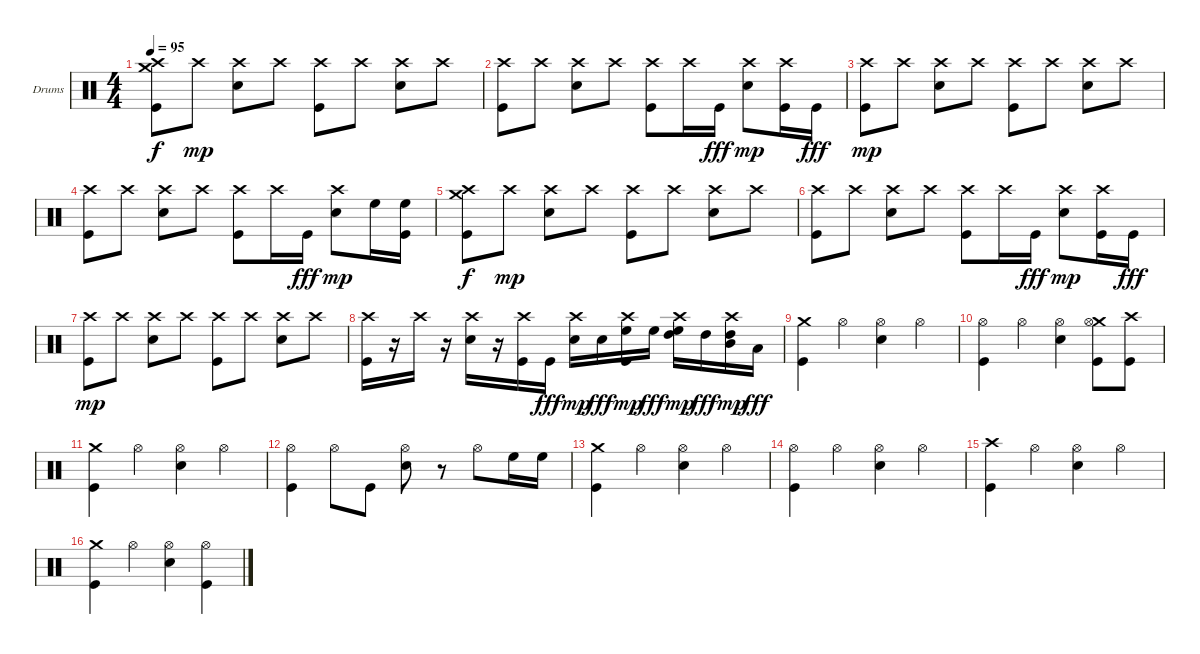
\bracketExtendMode groupsimilarinstruments
\firstSystemTrackNameOrientation horizontal
\otherSystemsTrackNameOrientation horizontal
\track ("Drumkit" "Drums") {solo instrument percussion}
\staff {score}
\articulation defaults
\ts (4 4)
\tempo 95
\clef neutral
\scale
0.5
\ks c
("Crash medium (hit)" "Crash high (hit)" "Kick (hit)").8{dy f} "Crash high (hit)".8{dy mp} ("Crash high (hit)" "Snare (hit) 2").8 "Crash high (hit)".8 ("Crash high (hit)" "Kick (hit)").8 "Crash high (hit)".8 ("Crash high (hit)" "Snare (hit) 2").8 "Crash high (hit)".8 |
\scale
0.5 ("Crash high (hit)" "Kick (hit)").8 "Crash high (hit)".8 ("Crash high (hit)" "Snare (hit) 2").8 "Crash high (hit)".8 ("Crash high (hit)" "Kick (hit)").8 "Crash high (hit)".16 "Kick (hit)".16{dy fff} ("Crash high (hit)" "Snare (hit) 2").8{dy mp} ("Crash high (hit)" "Kick (hit)").16 "Kick (hit)".16{dy fff} |
\scale
0.5 ("Crash high (hit)" "Kick (hit)").8{dy mp} "Crash high (hit)".8 ("Crash high (hit)" "Snare (hit) 2").8 "Crash high (hit)".8 ("Crash high (hit)" "Kick (hit)").8 "Crash high (hit)".8 ("Crash high (hit)" "Snare (hit) 2").8 "Crash high (hit)".8 |
\scale
0.5 ("Crash high (hit)" "Kick (hit)").8 "Crash high (hit)".8 ("Crash high (hit)" "Snare (hit) 2").8 "Crash high (hit)".8 ("Crash high (hit)" "Kick (hit)").8 "Crash high (hit)".16 "Kick (hit)".16{dy fff} ("Crash high (hit)" "Snare (hit) 2").8{dy mp} "High Floor Tom (hit)".16 ("High Floor Tom (hit)" "Kick (hit)").16 |
\scale
0.5 ("Crash medium (hit)" "Crash high (hit)" "Kick (hit)").8{dy f} "Crash high (hit)".8{dy mp} ("Crash high (hit)" "Snare (hit) 2").8 "Crash high (hit)".8 ("Crash high (hit)" "Kick (hit)").8 "Crash high (hit)".8 ("Crash high (hit)" "Snare (hit) 2").8 "Crash high (hit)".8 |
\scale
0.5 ("Crash high (hit)" "Kick (hit)").8 "Crash high (hit)".8 ("Crash high (hit)" "Snare (hit) 2").8 "Crash high (hit)".8 ("Crash high (hit)" "Kick (hit)").8 "Crash high (hit)".16 "Kick (hit)".16{dy fff} ("Crash high (hit)" "Snare (hit) 2").8{dy mp} ("Crash high (hit)" "Kick (hit)").16 "Kick (hit)".16{dy fff} |
\scale
0.5 ("Crash high (hit)" "Kick (hit)").8{dy mp} "Crash high (hit)".8 ("Crash high (hit)" "Snare (hit) 2").8 "Crash high (hit)".8 ("Crash high (hit)" "Kick (hit)").8 "Crash high (hit)".8 ("Crash high (hit)" "Snare (hit) 2").8 "Crash high (hit)".8 |
\scale
0.5 ("Crash high (hit)" "Kick (hit)").16 r.16 "Crash high (hit)".16 r.16 ("Crash high (hit)" "Snare (hit) 2").16 r.16 ("Crash high (hit)" "Kick (hit)").16 "Kick (hit)".16{dy fff} ("Crash high (hit)" "Snare (hit) 2").16{dy mp} "Snare (hit) 2".16{dy fff} ("Crash high (hit)" "High Floor Tom (hit)" "Kick (hit)").16{dy mp} "High Floor Tom (hit)".16{dy fff} ("Crash high (hit)" "High Floor Tom (hit)" "High Tom (hit)").16{dy mp} "High Tom (hit)".16{dy fff} ("Crash high (hit)" "High Tom (hit)" "Mid Tom (hit)").16{dy mp} "Low Tom (hit)".16{dy fff} |
\scale
0.5 ("Crash medium (hit)" "Kick (hit)").4 "Hi-Hat (open)".4 ("Hi-Hat (open)" "Snare (hit) 2").4 "Hi-Hat (open)".4 |
\scale
0.5 ("Hi-Hat (open)" "Kick (hit)").4 "Hi-Hat (open)".4 ("Hi-Hat (open)" "Snare (hit) 2").4 ("Crash medium (hit)" "Hi-Hat (open)" "Kick (hit)").8 ("Crash high (hit)" "Kick (hit)").8 |
\scale
0.5 ("Crash medium (hit)" "Kick (hit)").4 "Hi-Hat (open)".4 ("Hi-Hat (open)" "Snare (hit) 2").4 "Hi-Hat (open)".4 |
\scale
0.5 ("Hi-Hat (open)" "Kick (hit)").4 "Hi-Hat (open)".8 "Kick (hit)".8 ("Hi-Hat (open)" "Snare (hit) 2").8 r.8 "Hi-Hat (open)".8 "High Floor Tom (hit)".16 "High Floor Tom (hit)".16 |
\scale
0.5 ("Crash medium (hit)" "Kick (hit)").4 "Hi-Hat (open)".4 ("Hi-Hat (open)" "Snare (hit) 2").4 "Hi-Hat (open)".4 |
\scale
0.5 ("Hi-Hat (open)" "Kick (hit)").4 "Hi-Hat (open)".4 ("Hi-Hat (open)" "Snare (hit) 2").4 "Hi-Hat (open)".4 |
\scale
0.5 ("Crash high (hit)" "Kick (hit)").4 "Hi-Hat (open)".4 ("Hi-Hat (open)" "Snare (hit) 2").4 "Hi-Hat (open)".4 |
\scale
0.5 ("Crash medium (hit)" "Kick (hit)").4 "Hi-Hat (open)".4 ("Hi-Hat (open)" "Snare (hit) 2").4 ("Hi-Hat (open)" "Kick (hit)").4
